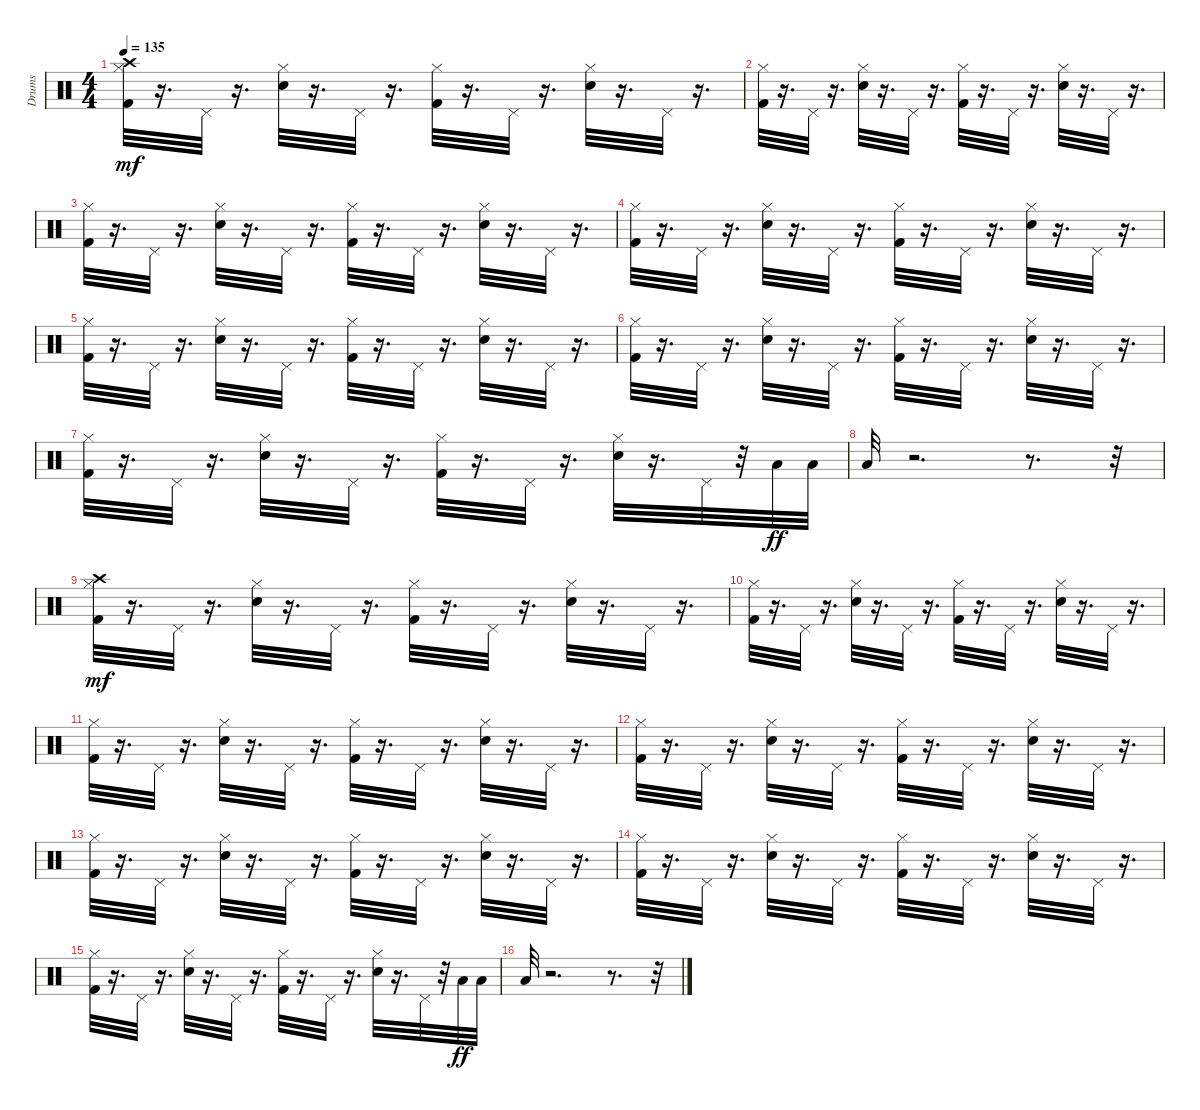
\track ("Drums" "Drums") {instrument percussion}
\staff {score}
\articulation defaults
\ts (4 4)
\tempo 135
\clef neutral
\ks c
("Crash high (hit)" "Hi-Hat (closed)" "Kick (hit) 2").32{dy mf} r.16{d} "Pedal Hi-Hat (hit)".32 r.16{d} ("Hi-Hat (closed)" "Snare (hit) 2").32 r.16{d} "Pedal Hi-Hat (hit)".32 r.16{d} ("Hi-Hat (closed)" "Kick (hit) 2").32 r.16{d} "Pedal Hi-Hat (hit)".32 r.16{d} ("Hi-Hat (closed)" "Snare (hit) 2").32 r.16{d} "Pedal Hi-Hat (hit)".32 r.16{d} |
("Hi-Hat (closed)" "Kick (hit) 2").32 r.16{d} "Pedal Hi-Hat (hit)".32 r.16{d} ("Hi-Hat (closed)" "Snare (hit) 2").32 r.16{d} "Pedal Hi-Hat (hit)".32 r.16{d} ("Hi-Hat (closed)" "Kick (hit) 2").32 r.16{d} "Pedal Hi-Hat (hit)".32 r.16{d} ("Hi-Hat (closed)" "Snare (hit) 2").32 r.16{d} "Pedal Hi-Hat (hit)".32 r.16{d} |
("Hi-Hat (closed)" "Kick (hit) 2").32 r.16{d} "Pedal Hi-Hat (hit)".32 r.16{d} ("Hi-Hat (closed)" "Snare (hit) 2").32 r.16{d} "Pedal Hi-Hat (hit)".32 r.16{d} ("Hi-Hat (closed)" "Kick (hit) 2").32 r.16{d} "Pedal Hi-Hat (hit)".32 r.16{d} ("Hi-Hat (closed)" "Snare (hit) 2").32 r.16{d} "Pedal Hi-Hat (hit)".32 r.16{d} |
("Hi-Hat (closed)" "Kick (hit) 2").32 r.16{d} "Pedal Hi-Hat (hit)".32 r.16{d} ("Hi-Hat (closed)" "Snare (hit) 2").32 r.16{d} "Pedal Hi-Hat (hit)".32 r.16{d} ("Hi-Hat (closed)" "Kick (hit) 2").32 r.16{d} "Pedal Hi-Hat (hit)".32 r.16{d} ("Hi-Hat (closed)" "Snare (hit) 2").32 r.16{d} "Pedal Hi-Hat (hit)".32 r.16{d} |
("Hi-Hat (closed)" "Kick (hit) 2").32 r.16{d} "Pedal Hi-Hat (hit)".32 r.16{d} ("Hi-Hat (closed)" "Snare (hit) 2").32 r.16{d} "Pedal Hi-Hat (hit)".32 r.16{d} ("Hi-Hat (closed)" "Kick (hit) 2").32 r.16{d} "Pedal Hi-Hat (hit)".32 r.16{d} ("Hi-Hat (closed)" "Snare (hit) 2").32 r.16{d} "Pedal Hi-Hat (hit)".32 r.16{d} |
("Hi-Hat (closed)" "Kick (hit) 2").32 r.16{d} "Pedal Hi-Hat (hit)".32 r.16{d} ("Hi-Hat (closed)" "Snare (hit) 2").32 r.16{d} "Pedal Hi-Hat (hit)".32 r.16{d} ("Hi-Hat (closed)" "Kick (hit) 2").32 r.16{d} "Pedal Hi-Hat (hit)".32 r.16{d} ("Hi-Hat (closed)" "Snare (hit) 2").32 r.16{d} "Pedal Hi-Hat (hit)".32 r.16{d} |
("Hi-Hat (closed)" "Kick (hit) 2").32 r.16{d} "Pedal Hi-Hat (hit)".32 r.16{d} ("Hi-Hat (closed)" "Snare (hit) 2").32 r.16{d} "Pedal Hi-Hat (hit)".32 r.16{d} ("Hi-Hat (closed)" "Kick (hit) 2").32 r.16{d} "Pedal Hi-Hat (hit)".32 r.16{d} ("Hi-Hat (closed)" "Snare (hit) 2").32 r.16{d} "Pedal Hi-Hat (hit)".32 r.32 "Low Tom (hit)".32{dy ff} "Low Tom (hit)".32 |
"Low Tom (hit)".32 r.2{d} r.8{d} r.32 |
("Crash high (hit)" "Hi-Hat (closed)" "Kick (hit) 2").32{dy mf} r.16{d} "Pedal Hi-Hat (hit)".32 r.16{d} ("Hi-Hat (closed)" "Snare (hit) 2").32 r.16{d} "Pedal Hi-Hat (hit)".32 r.16{d} ("Hi-Hat (closed)" "Kick (hit) 2").32 r.16{d} "Pedal Hi-Hat (hit)".32 r.16{d} ("Hi-Hat (closed)" "Snare (hit) 2").32 r.16{d} "Pedal Hi-Hat (hit)".32 r.16{d} |
("Hi-Hat (closed)" "Kick (hit) 2").32 r.16{d} "Pedal Hi-Hat (hit)".32 r.16{d} ("Hi-Hat (closed)" "Snare (hit) 2").32 r.16{d} "Pedal Hi-Hat (hit)".32 r.16{d} ("Hi-Hat (closed)" "Kick (hit) 2").32 r.16{d} "Pedal Hi-Hat (hit)".32 r.16{d} ("Hi-Hat (closed)" "Snare (hit) 2").32 r.16{d} "Pedal Hi-Hat (hit)".32 r.16{d} |
("Hi-Hat (closed)" "Kick (hit) 2").32 r.16{d} "Pedal Hi-Hat (hit)".32 r.16{d} ("Hi-Hat (closed)" "Snare (hit) 2").32 r.16{d} "Pedal Hi-Hat (hit)".32 r.16{d} ("Hi-Hat (closed)" "Kick (hit) 2").32 r.16{d} "Pedal Hi-Hat (hit)".32 r.16{d} ("Hi-Hat (closed)" "Snare (hit) 2").32 r.16{d} "Pedal Hi-Hat (hit)".32 r.16{d} |
("Hi-Hat (closed)" "Kick (hit) 2").32 r.16{d} "Pedal Hi-Hat (hit)".32 r.16{d} ("Hi-Hat (closed)" "Snare (hit) 2").32 r.16{d} "Pedal Hi-Hat (hit)".32 r.16{d} ("Hi-Hat (closed)" "Kick (hit) 2").32 r.16{d} "Pedal Hi-Hat (hit)".32 r.16{d} ("Hi-Hat (closed)" "Snare (hit) 2").32 r.16{d} "Pedal Hi-Hat (hit)".32 r.16{d} |
("Hi-Hat (closed)" "Kick (hit) 2").32 r.16{d} "Pedal Hi-Hat (hit)".32 r.16{d} ("Hi-Hat (closed)" "Snare (hit) 2").32 r.16{d} "Pedal Hi-Hat (hit)".32 r.16{d} ("Hi-Hat (closed)" "Kick (hit) 2").32 r.16{d} "Pedal Hi-Hat (hit)".32 r.16{d} ("Hi-Hat (closed)" "Snare (hit) 2").32 r.16{d} "Pedal Hi-Hat (hit)".32 r.16{d} |
("Hi-Hat (closed)" "Kick (hit) 2").32 r.16{d} "Pedal Hi-Hat (hit)".32 r.16{d} ("Hi-Hat (closed)" "Snare (hit) 2").32 r.16{d} "Pedal Hi-Hat (hit)".32 r.16{d} ("Hi-Hat (closed)" "Kick (hit) 2").32 r.16{d} "Pedal Hi-Hat (hit)".32 r.16{d} ("Hi-Hat (closed)" "Snare (hit) 2").32 r.16{d} "Pedal Hi-Hat (hit)".32 r.16{d} |
("Hi-Hat (closed)" "Kick (hit) 2").32 r.16{d} "Pedal Hi-Hat (hit)".32 r.16{d} ("Hi-Hat (closed)" "Snare (hit) 2").32 r.16{d} "Pedal Hi-Hat (hit)".32 r.16{d} ("Hi-Hat (closed)" "Kick (hit) 2").32 r.16{d} "Pedal Hi-Hat (hit)".32 r.16{d} ("Hi-Hat (closed)" "Snare (hit) 2").32 r.16{d} "Pedal Hi-Hat (hit)".32 r.32 "Low Tom (hit)".32{dy ff} "Low Tom (hit)".32 |
"Low Tom (hit)".32 r.2{d} r.8{d} r.32
